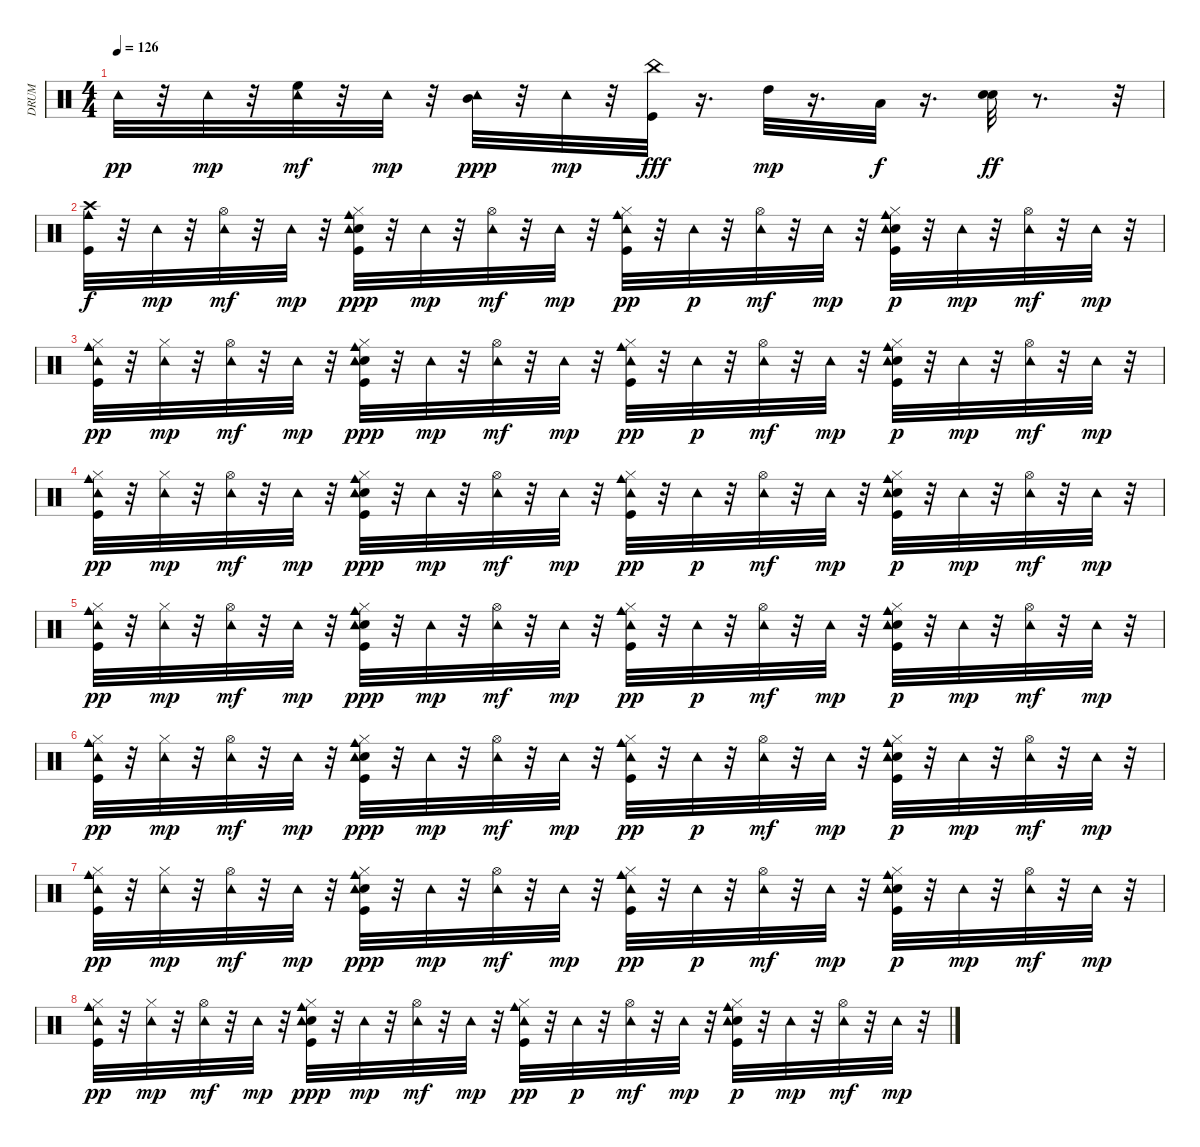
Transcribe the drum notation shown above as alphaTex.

\track ("DRUM" "DRUM") {instrument percussion}
\staff {score}
\articulation defaults
\ts (4 4)
\tempo 126
\clef neutral
\ks c "Tambourine (hit)".32{dy pp}
r.32 "Tambourine (hit)".32{dy mp} r.32 ("High Floor Tom (hit)" "Tambourine (hit)").32{dy mf} r.32 "Tambourine (hit)".32{dy mp} r.32 ("Mid Tom (hit)" "Tambourine (hit)").32{dy ppp} r.32 "Tambourine (hit)".32{dy mp} r.32 ("Kick (hit)" "China (hit)").32{dy fff} r.16{d} "High Tom (hit)".32{dy mp} r.16{d} "Low Tom (hit)".32{dy f} r.16{d} ("Electric Snare (hit)" "Electric Snare (hit)").32{dy ff} r.8{d} r.32 |
("Kick (hit)" "Crash high (hit)" "Cowbell medium (hit)").32{dy f} r.32 "Tambourine (hit)".32{dy mp} r.32 ("Hi-Hat (open)" "Tambourine (hit)").32{dy mf} r.32 "Tambourine (hit)".32{dy mp} r.32 ("Kick (hit)" "Electric Snare (hit)" "Hi-Hat (closed)" "Tambourine (hit)" "Cowbell medium (hit)").32{dy ppp} r.32 "Tambourine (hit)".32{dy mp} r.32 ("Hi-Hat (open)" "Tambourine (hit)").32{dy mf} r.32 "Tambourine (hit)".32{dy mp} r.32 ("Kick (hit)" "Hi-Hat (closed)" "Tambourine (hit)" "Cowbell medium (hit)").32{dy pp} r.32 "Tambourine (hit)".32{dy p} r.32 ("Hi-Hat (open)" "Tambourine (hit)").32{dy mf} r.32 "Tambourine (hit)".32{dy mp} r.32 ("Kick (hit)" "Electric Snare (hit)" "Hi-Hat (closed)" "Tambourine (hit)" "Cowbell medium (hit)").32{dy p} r.32 "Tambourine (hit)".32{dy mp} r.32 ("Hi-Hat (open)" "Tambourine (hit)").32{dy mf} r.32 "Tambourine (hit)".32{dy mp} r.32 |
("Kick (hit)" "Hi-Hat (closed)" "Tambourine (hit)" "Cowbell medium (hit)").32{dy pp} r.32 ("Hi-Hat (closed)" "Tambourine (hit)").32{dy mp} r.32 ("Hi-Hat (open)" "Tambourine (hit)").32{dy mf} r.32 "Tambourine (hit)".32{dy mp} r.32 ("Kick (hit)" "Electric Snare (hit)" "Hi-Hat (closed)" "Tambourine (hit)" "Cowbell medium (hit)").32{dy ppp} r.32 "Tambourine (hit)".32{dy mp} r.32 ("Hi-Hat (open)" "Tambourine (hit)").32{dy mf} r.32 "Tambourine (hit)".32{dy mp} r.32 ("Kick (hit)" "Hi-Hat (closed)" "Tambourine (hit)" "Cowbell medium (hit)").32{dy pp} r.32 "Tambourine (hit)".32{dy p} r.32 ("Hi-Hat (open)" "Tambourine (hit)").32{dy mf} r.32 "Tambourine (hit)".32{dy mp} r.32 ("Kick (hit)" "Electric Snare (hit)" "Hi-Hat (closed)" "Tambourine (hit)" "Cowbell medium (hit)").32{dy p} r.32 "Tambourine (hit)".32{dy mp} r.32 ("Hi-Hat (open)" "Tambourine (hit)").32{dy mf} r.32 "Tambourine (hit)".32{dy mp} r.32 |
("Kick (hit)" "Hi-Hat (closed)" "Tambourine (hit)" "Cowbell medium (hit)").32{dy pp} r.32 ("Hi-Hat (closed)" "Tambourine (hit)").32{dy mp} r.32 ("Hi-Hat (open)" "Tambourine (hit)").32{dy mf} r.32 "Tambourine (hit)".32{dy mp} r.32 ("Kick (hit)" "Electric Snare (hit)" "Hi-Hat (closed)" "Tambourine (hit)" "Cowbell medium (hit)").32{dy ppp} r.32 "Tambourine (hit)".32{dy mp} r.32 ("Hi-Hat (open)" "Tambourine (hit)").32{dy mf} r.32 "Tambourine (hit)".32{dy mp} r.32 ("Kick (hit)" "Hi-Hat (closed)" "Tambourine (hit)" "Cowbell medium (hit)").32{dy pp} r.32 "Tambourine (hit)".32{dy p} r.32 ("Hi-Hat (open)" "Tambourine (hit)").32{dy mf} r.32 "Tambourine (hit)".32{dy mp} r.32 ("Kick (hit)" "Electric Snare (hit)" "Hi-Hat (closed)" "Tambourine (hit)" "Cowbell medium (hit)").32{dy p} r.32 "Tambourine (hit)".32{dy mp} r.32 ("Hi-Hat (open)" "Tambourine (hit)").32{dy mf} r.32 "Tambourine (hit)".32{dy mp} r.32 |
("Kick (hit)" "Hi-Hat (closed)" "Tambourine (hit)" "Cowbell medium (hit)").32{dy pp} r.32 ("Hi-Hat (closed)" "Tambourine (hit)").32{dy mp} r.32 ("Hi-Hat (open)" "Tambourine (hit)").32{dy mf} r.32 "Tambourine (hit)".32{dy mp} r.32 ("Kick (hit)" "Electric Snare (hit)" "Hi-Hat (closed)" "Tambourine (hit)" "Cowbell medium (hit)").32{dy ppp} r.32 "Tambourine (hit)".32{dy mp} r.32 ("Hi-Hat (open)" "Tambourine (hit)").32{dy mf} r.32 "Tambourine (hit)".32{dy mp} r.32 ("Kick (hit)" "Hi-Hat (closed)" "Tambourine (hit)" "Cowbell medium (hit)").32{dy pp} r.32 "Tambourine (hit)".32{dy p} r.32 ("Hi-Hat (open)" "Tambourine (hit)").32{dy mf} r.32 "Tambourine (hit)".32{dy mp} r.32 ("Kick (hit)" "Electric Snare (hit)" "Hi-Hat (closed)" "Tambourine (hit)" "Cowbell medium (hit)").32{dy p} r.32 "Tambourine (hit)".32{dy mp} r.32 ("Hi-Hat (open)" "Tambourine (hit)").32{dy mf} r.32 "Tambourine (hit)".32{dy mp} r.32 |
("Kick (hit)" "Hi-Hat (closed)" "Tambourine (hit)" "Cowbell medium (hit)").32{dy pp} r.32 ("Hi-Hat (closed)" "Tambourine (hit)").32{dy mp} r.32 ("Hi-Hat (open)" "Tambourine (hit)").32{dy mf} r.32 "Tambourine (hit)".32{dy mp} r.32 ("Kick (hit)" "Electric Snare (hit)" "Hi-Hat (closed)" "Tambourine (hit)" "Cowbell medium (hit)").32{dy ppp} r.32 "Tambourine (hit)".32{dy mp} r.32 ("Hi-Hat (open)" "Tambourine (hit)").32{dy mf} r.32 "Tambourine (hit)".32{dy mp} r.32 ("Kick (hit)" "Hi-Hat (closed)" "Tambourine (hit)" "Cowbell medium (hit)").32{dy pp} r.32 "Tambourine (hit)".32{dy p} r.32 ("Hi-Hat (open)" "Tambourine (hit)").32{dy mf} r.32 "Tambourine (hit)".32{dy mp} r.32 ("Kick (hit)" "Electric Snare (hit)" "Hi-Hat (closed)" "Tambourine (hit)" "Cowbell medium (hit)").32{dy p} r.32 "Tambourine (hit)".32{dy mp} r.32 ("Hi-Hat (open)" "Tambourine (hit)").32{dy mf} r.32 "Tambourine (hit)".32{dy mp} r.32 |
("Kick (hit)" "Hi-Hat (closed)" "Tambourine (hit)" "Cowbell medium (hit)").32{dy pp} r.32 ("Hi-Hat (closed)" "Tambourine (hit)").32{dy mp} r.32 ("Hi-Hat (open)" "Tambourine (hit)").32{dy mf} r.32 "Tambourine (hit)".32{dy mp} r.32 ("Kick (hit)" "Electric Snare (hit)" "Hi-Hat (closed)" "Tambourine (hit)" "Cowbell medium (hit)").32{dy ppp} r.32 "Tambourine (hit)".32{dy mp} r.32 ("Hi-Hat (open)" "Tambourine (hit)").32{dy mf} r.32 "Tambourine (hit)".32{dy mp} r.32 ("Kick (hit)" "Hi-Hat (closed)" "Tambourine (hit)" "Cowbell medium (hit)").32{dy pp} r.32 "Tambourine (hit)".32{dy p} r.32 ("Hi-Hat (open)" "Tambourine (hit)").32{dy mf} r.32 "Tambourine (hit)".32{dy mp} r.32 ("Kick (hit)" "Electric Snare (hit)" "Hi-Hat (closed)" "Tambourine (hit)" "Cowbell medium (hit)").32{dy p} r.32 "Tambourine (hit)".32{dy mp} r.32 ("Hi-Hat (open)" "Tambourine (hit)").32{dy mf} r.32 "Tambourine (hit)".32{dy mp} r.32 |
("Kick (hit)" "Hi-Hat (closed)" "Tambourine (hit)" "Cowbell medium (hit)").32{dy pp} r.32 ("Hi-Hat (closed)" "Tambourine (hit)").32{dy mp} r.32 ("Hi-Hat (open)" "Tambourine (hit)").32{dy mf} r.32 "Tambourine (hit)".32{dy mp} r.32 ("Kick (hit)" "Electric Snare (hit)" "Hi-Hat (closed)" "Tambourine (hit)" "Cowbell medium (hit)").32{dy ppp} r.32 "Tambourine (hit)".32{dy mp} r.32 ("Hi-Hat (open)" "Tambourine (hit)").32{dy mf} r.32 "Tambourine (hit)".32{dy mp} r.32 ("Kick (hit)" "Hi-Hat (closed)" "Tambourine (hit)" "Cowbell medium (hit)").32{dy pp} r.32 "Tambourine (hit)".32{dy p} r.32 ("Hi-Hat (open)" "Tambourine (hit)").32{dy mf} r.32 "Tambourine (hit)".32{dy mp} r.32 ("Kick (hit)" "Electric Snare (hit)" "Hi-Hat (closed)" "Tambourine (hit)" "Cowbell medium (hit)").32{dy p} r.32 "Tambourine (hit)".32{dy mp} r.32 ("Hi-Hat (open)" "Tambourine (hit)").32{dy mf} r.32 "Tambourine (hit)".32{dy mp} r.32
